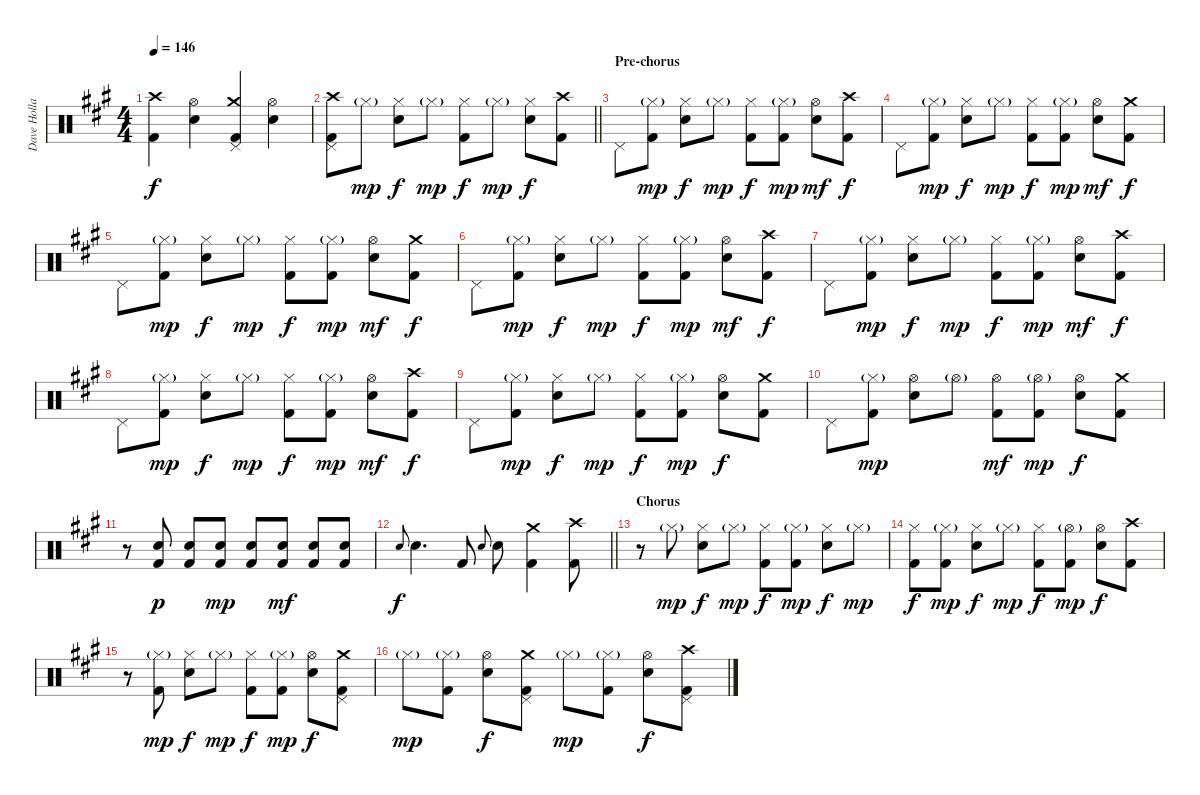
\track ("Dave Holland" "Dave Holla") {instrument percussion}
\staff {score}
\articulation defaults
\ts (4 4)
\tempo 146
\clef neutral
\ks a
("Crash high (hit)" "Kick (hit) 2").4{dy f} ("Hi-Hat (open)" "Electric Snare (hit)").4 ("Crash medium (hit)" "Pedal Hi-Hat (hit)" "Kick (hit) 2").4 ("Hi-Hat (open)" "Electric Snare (hit)").4 |
\barLineRight lightlight
("Crash high (hit)" "Pedal Hi-Hat (hit)" "Kick (hit) 2").8 "Hi-Hat (closed)"{g}.8{dy mp} ("Hi-Hat (closed)" "Electric Snare (hit)").8{dy f} "Hi-Hat (closed)"{g}.8{dy mp} ("Hi-Hat (closed)" "Kick (hit) 2").8{dy f} "Hi-Hat (closed)"{g}.8{dy mp} ("Hi-Hat (closed)" "Electric Snare (hit)").8{dy f} ("Crash high (hit)" "Kick (hit) 2").8 |
\section ("" "Pre-chorus")
"Pedal Hi-Hat (hit)".8 ("Hi-Hat (closed)"{g} "Kick (hit) 2").8{dy mp} ("Hi-Hat (closed)" "Electric Snare (hit)").8{dy f} "Hi-Hat (closed)"{g}.8{dy mp} ("Hi-Hat (closed)" "Kick (hit) 2").8{dy f} ("Hi-Hat (closed)"{g} "Kick (hit) 2").8{dy mp} ("Hi-Hat (open)" "Electric Snare (hit)").8{dy mf} ("Crash high (hit)" "Kick (hit) 2").8{dy f} |
"Pedal Hi-Hat (hit)".8 ("Hi-Hat (closed)"{g} "Kick (hit) 2").8{dy mp} ("Hi-Hat (closed)" "Electric Snare (hit)").8{dy f} "Hi-Hat (closed)"{g}.8{dy mp} ("Hi-Hat (closed)" "Kick (hit) 2").8{dy f} ("Hi-Hat (closed)"{g} "Kick (hit) 2").8{dy mp} ("Hi-Hat (open)" "Electric Snare (hit)").8{dy mf} ("Crash medium (hit)" "Kick (hit) 2").8{dy f} |
"Pedal Hi-Hat (hit)".8 ("Hi-Hat (closed)"{g} "Kick (hit) 2").8{dy mp} ("Hi-Hat (closed)" "Electric Snare (hit)").8{dy f} "Hi-Hat (closed)"{g}.8{dy mp} ("Hi-Hat (closed)" "Kick (hit) 2").8{dy f} ("Hi-Hat (closed)"{g} "Kick (hit) 2").8{dy mp} ("Hi-Hat (open)" "Electric Snare (hit)").8{dy mf} ("Crash medium (hit)" "Kick (hit) 2").8{dy f} |
"Pedal Hi-Hat (hit)".8 ("Hi-Hat (closed)"{g} "Kick (hit) 2").8{dy mp} ("Hi-Hat (closed)" "Electric Snare (hit)").8{dy f} "Hi-Hat (closed)"{g}.8{dy mp} ("Hi-Hat (closed)" "Kick (hit) 2").8{dy f} ("Hi-Hat (closed)"{g} "Kick (hit) 2").8{dy mp} ("Hi-Hat (open)" "Electric Snare (hit)").8{dy mf} ("Crash high (hit)" "Kick (hit) 2").8{dy f} |
"Pedal Hi-Hat (hit)".8 ("Hi-Hat (closed)"{g} "Kick (hit) 2").8{dy mp} ("Hi-Hat (closed)" "Electric Snare (hit)").8{dy f} "Hi-Hat (closed)"{g}.8{dy mp} ("Hi-Hat (closed)" "Kick (hit) 2").8{dy f} ("Hi-Hat (closed)"{g} "Kick (hit) 2").8{dy mp} ("Hi-Hat (open)" "Electric Snare (hit)").8{dy mf} ("Crash high (hit)" "Kick (hit) 2").8{dy f} |
"Pedal Hi-Hat (hit)".8 ("Hi-Hat (closed)"{g} "Kick (hit) 2").8{dy mp} ("Hi-Hat (closed)" "Electric Snare (hit)").8{dy f} "Hi-Hat (closed)"{g}.8{dy mp} ("Hi-Hat (closed)" "Kick (hit) 2").8{dy f} ("Hi-Hat (closed)"{g} "Kick (hit) 2").8{dy mp} ("Hi-Hat (open)" "Electric Snare (hit)").8{dy mf} ("Crash high (hit)" "Kick (hit) 2").8{dy f} |
"Pedal Hi-Hat (hit)".8 ("Hi-Hat (closed)"{g} "Kick (hit) 2").8{dy mp} ("Hi-Hat (closed)" "Electric Snare (hit)").8{dy f} "Hi-Hat (closed)"{g}.8{dy mp} ("Hi-Hat (closed)" "Kick (hit) 2").8{dy f} ("Hi-Hat (closed)"{g} "Kick (hit) 2").8{dy mp} ("Hi-Hat (open)" "Electric Snare (hit)").8{dy f} ("Crash medium (hit)" "Kick (hit) 2").8 |
"Pedal Hi-Hat (hit)".8 ("Hi-Hat (closed)"{g} "Kick (hit) 2").8{dy mp} ("Hi-Hat (open)" "Electric Snare (hit)").8 "Hi-Hat (open)"{g}.8 ("Hi-Hat (open)" "Kick (hit) 2").8{dy mf} ("Hi-Hat (open)"{g} "Kick (hit) 2").8{dy mp} ("Hi-Hat (open)" "Electric Snare (hit)").8{dy f} ("Crash medium (hit)" "Kick (hit) 2").8 |
r.8 ("Electric Snare (hit)" "Kick (hit) 2").8{dy p} ("Electric Snare (hit)" "Kick (hit) 2").8 ("Electric Snare (hit)" "Kick (hit) 2").8{dy mp} ("Electric Snare (hit)" "Kick (hit) 2").8 ("Electric Snare (hit)" "Kick (hit) 2").8{dy mf} ("Electric Snare (hit)" "Kick (hit) 2").8 ("Electric Snare (hit)" "Kick (hit) 2").8 |
\barLineRight lightlight "Electric Snare (hit)".8{gr onbeat dy f} "Electric Snare (hit)".4{d} "Kick (hit) 2".8 "Electric Snare (hit)".8{gr onbeat} "Electric Snare (hit)".8
("Crash medium (hit)" "Kick (hit) 2").4 ("Crash high (hit)" "Kick (hit) 2").8 |
\section ("" "Chorus")
r.8 "Hi-Hat (closed)"{g}.8{dy mp} ("Hi-Hat (closed)" "Electric Snare (hit)").8{dy f} "Hi-Hat (closed)"{g}.8{dy mp} ("Hi-Hat (closed)" "Kick (hit) 2").8{dy f} ("Hi-Hat (closed)"{g} "Kick (hit) 2").8{dy mp} ("Hi-Hat (closed)" "Electric Snare (hit)").8{dy f} "Hi-Hat (closed)"{g}.8{dy mp} |
("Hi-Hat (closed)" "Kick (hit) 2").8{dy f} ("Hi-Hat (closed)"{g} "Kick (hit) 2").8{dy mp} ("Hi-Hat (closed)" "Electric Snare (hit)").8{dy f} "Hi-Hat (closed)"{g}.8{dy mp} ("Hi-Hat (closed)" "Kick (hit) 2").8{dy f} ("Hi-Hat (open)"{g} "Kick (hit) 2").8{dy mp} ("Hi-Hat (open)" "Electric Snare (hit)").8{dy f} ("Crash high (hit)" "Kick (hit) 2").8 |
r.8 ("Hi-Hat (closed)"{g} "Kick (hit) 2").8{dy mp} ("Hi-Hat (closed)" "Electric Snare (hit)").8{dy f} "Hi-Hat (closed)"{g}.8{dy mp} ("Hi-Hat (closed)" "Kick (hit) 2").8{dy f} ("Hi-Hat (closed)"{g} "Kick (hit) 2").8{dy mp} ("Hi-Hat (open)" "Electric Snare (hit)").8{dy f} ("Crash medium (hit)" "Pedal Hi-Hat (hit)" "Kick (hit) 2").8 |
"Hi-Hat (closed)"{g}.8{dy mp} ("Hi-Hat (closed)"{g} "Kick (hit) 2").8 ("Hi-Hat (open)" "Electric Snare (hit)").8{dy f} ("Crash medium (hit)" "Pedal Hi-Hat (hit)" "Kick (hit) 2").8 "Hi-Hat (closed)"{g}.8{dy mp} ("Hi-Hat (closed)"{g} "Kick (hit) 2").8 ("Hi-Hat (open)" "Electric Snare (hit)").8{dy f} ("Crash high (hit)" "Pedal Hi-Hat (hit)" "Kick (hit) 2").8
